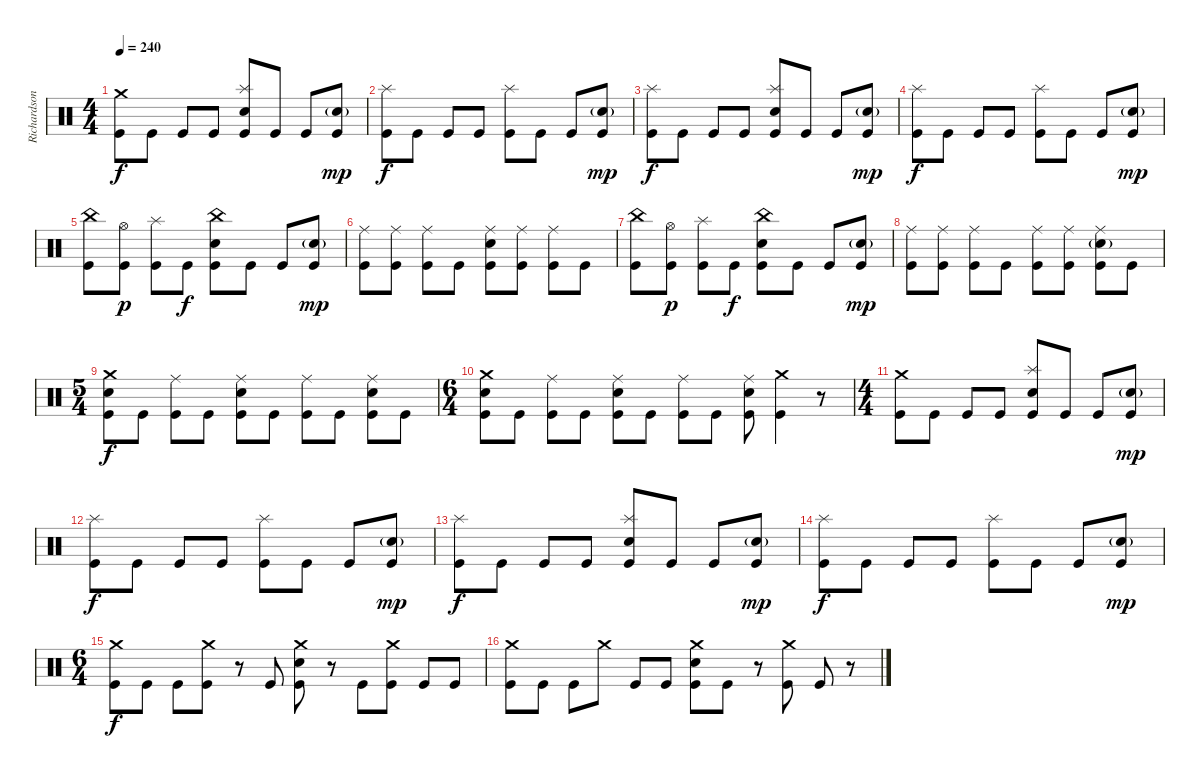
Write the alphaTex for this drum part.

\track ("Richardson" "Richardson") {instrument percussion}
\staff {score}
\articulation defaults
\ts (4 4)
\tempo 240
\clef neutral
\ks c
("Crash medium (hit)" "Kick (hit)").8{dy f} "Kick (hit)".8 "Kick (hit)".8 "Kick (hit)".8 ("Splash (hit)" "Electric Snare (hit)" "Kick (hit)").8 "Kick (hit)".8 "Kick (hit)".8 ("Electric Snare (hit)"{g} "Kick (hit)").8{dy mp} |
("Splash (hit)" "Kick (hit)").8{dy f} "Kick (hit)".8 "Kick (hit)".8 "Kick (hit)".8 ("Splash (hit)" "Kick (hit)").8 "Kick (hit)".8 "Kick (hit)".8 ("Electric Snare (hit)"{g} "Kick (hit)").8{dy mp} |
("Splash (hit)" "Kick (hit)").8{dy f} "Kick (hit)".8 "Kick (hit)".8 "Kick (hit)".8 ("Splash (hit)" "Electric Snare (hit)" "Kick (hit)").8 "Kick (hit)".8 "Kick (hit)".8 ("Electric Snare (hit)"{g} "Kick (hit)").8{dy mp} |
("Splash (hit)" "Kick (hit)").8{dy f} "Kick (hit)".8 "Kick (hit)".8 "Kick (hit)".8 ("Splash (hit)" "Kick (hit)").8 "Kick (hit)".8 "Kick (hit)".8 ("Electric Snare (hit)"{g} "Kick (hit)").8{dy mp} |
("China (hit)" "Kick (hit)").8 ("Hi-Hat (open)" "Kick (hit)").8{dy p} ("Splash (hit)" "Kick (hit)").8 "Kick (hit)".8{dy f} ("China (hit)" "Electric Snare (hit)" "Kick (hit)").8 "Kick (hit)".8 "Kick (hit)".8 ("Electric Snare (hit)"{g} "Kick (hit)").8{dy mp} |
("Ride (middle)" "Kick (hit)").8 ("Ride (middle)" "Kick (hit)").8 ("Ride (middle)" "Kick (hit)").8 "Kick (hit)".8 ("Ride (middle)" "Electric Snare (hit)" "Kick (hit)").8 ("Ride (middle)" "Kick (hit)").8 ("Ride (middle)" "Kick (hit)").8 "Kick (hit)".8 |
("China (hit)" "Kick (hit)").8 ("Hi-Hat (open)" "Kick (hit)").8{dy p} ("Splash (hit)" "Kick (hit)").8 "Kick (hit)".8{dy f} ("China (hit)" "Electric Snare (hit)" "Kick (hit)").8 "Kick (hit)".8 "Kick (hit)".8 ("Electric Snare (hit)"{g} "Kick (hit)").8{dy mp} |
("Ride (middle)" "Kick (hit)").8 ("Ride (middle)" "Kick (hit)").8 ("Ride (middle)" "Kick (hit)").8 "Kick (hit)".8 ("Ride (middle)" "Kick (hit)").8 ("Ride (middle)" "Kick (hit)").8 ("Ride (middle)" "Electric Snare (hit)"{g} "Kick (hit)").8 "Kick (hit)".8 |
\ts (5 4)
("Crash medium (hit)" "Electric Snare (hit)" "Kick (hit)").8{dy f} "Kick (hit)".8 ("Ride (middle)" "Kick (hit)").8 "Kick (hit)".8 ("Ride (middle)" "Electric Snare (hit)" "Kick (hit)").8 "Kick (hit)".8 ("Ride (middle)" "Kick (hit)").8 "Kick (hit)".8 ("Ride (middle)" "Electric Snare (hit)" "Kick (hit)").8 "Kick (hit)".8 |
\ts (6 4)
("Crash medium (hit)" "Electric Snare (hit)" "Kick (hit)").8 "Kick (hit)".8 ("Ride (middle)" "Kick (hit)").8 "Kick (hit)".8 ("Ride (middle)" "Electric Snare (hit)" "Kick (hit)").8 "Kick (hit)".8 ("Ride (middle)" "Kick (hit)").8 "Kick (hit)".8 ("Ride (middle)" "Electric Snare (hit)" "Kick (hit)").8 ("Crash medium (hit)" "Kick (hit)").4 r.8 |
\ts (4 4)
("Crash medium (hit)" "Kick (hit)").8 "Kick (hit)".8 "Kick (hit)".8 "Kick (hit)".8 ("Splash (hit)" "Electric Snare (hit)" "Kick (hit)").8 "Kick (hit)".8 "Kick (hit)".8 ("Electric Snare (hit)"{g} "Kick (hit)").8{dy mp} |
("Splash (hit)" "Kick (hit)").8{dy f} "Kick (hit)".8 "Kick (hit)".8 "Kick (hit)".8 ("Splash (hit)" "Kick (hit)").8 "Kick (hit)".8 "Kick (hit)".8 ("Electric Snare (hit)"{g} "Kick (hit)").8{dy mp} |
("Splash (hit)" "Kick (hit)").8{dy f} "Kick (hit)".8 "Kick (hit)".8 "Kick (hit)".8 ("Splash (hit)" "Electric Snare (hit)" "Kick (hit)").8 "Kick (hit)".8 "Kick (hit)".8 ("Electric Snare (hit)"{g} "Kick (hit)").8{dy mp} |
("Splash (hit)" "Kick (hit)").8{dy f} "Kick (hit)".8 "Kick (hit)".8 "Kick (hit)".8 ("Splash (hit)" "Kick (hit)").8 "Kick (hit)".8 "Kick (hit)".8 ("Electric Snare (hit)"{g} "Kick (hit)").8{dy mp} |
\ts (6 4)
("Crash medium (hit)" "Kick (hit)").8{dy f} "Kick (hit)".8 "Kick (hit)".8 ("Crash medium (hit)" "Kick (hit)").8 r.8 "Kick (hit)".8 ("Crash medium (hit)" "Electric Snare (hit)" "Kick (hit)").8 r.8 "Kick (hit)".8 ("Crash medium (hit)" "Kick (hit)").8 "Kick (hit)".8 "Kick (hit)".8 |
("Crash medium (hit)" "Kick (hit)").8 "Kick (hit)".8 "Kick (hit)".8 "Crash medium (hit)".8 "Kick (hit)".8 "Kick (hit)".8 ("Crash medium (hit)" "Electric Snare (hit)" "Kick (hit)").8 "Kick (hit)".8 r.8 ("Crash medium (hit)" "Kick (hit)").8 "Kick (hit)".8 r.8
